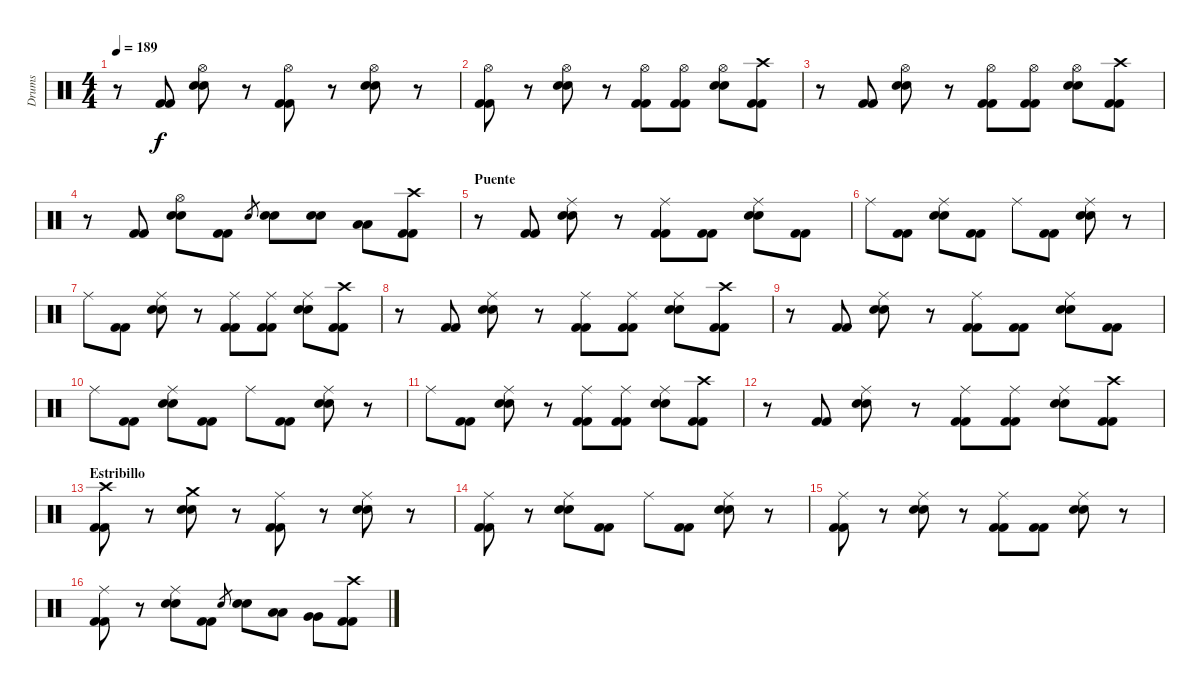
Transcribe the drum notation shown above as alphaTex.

\track ("Drums" "Drums") {instrument percussion}
\staff {score}
\articulation defaults
\ts (4 4)
\tempo 189
\clef neutral
\ks c
r.8{dy f} ("Kick (hit) 2" "Kick (hit) 2").8 ("Hi-Hat (open)" "Snare (hit) 2" "Snare (hit) 2").8 r.8 ("Hi-Hat (open)" "Kick (hit) 2" "Kick (hit) 2").8 r.8 ("Hi-Hat (open)" "Snare (hit) 2" "Snare (hit) 2").8 r.8 |
("Hi-Hat (open)" "Kick (hit) 2" "Kick (hit) 2").8 r.8 ("Hi-Hat (open)" "Snare (hit) 2" "Snare (hit) 2").8 r.8 ("Hi-Hat (open)" "Kick (hit) 2" "Kick (hit) 2").8 ("Hi-Hat (open)" "Kick (hit) 2" "Kick (hit) 2").8 ("Hi-Hat (open)" "Snare (hit) 2" "Snare (hit) 2").8 ("Crash high (hit)" "Kick (hit) 2" "Kick (hit) 2").8 |
r.8 ("Kick (hit) 2" "Kick (hit) 2").8 ("Hi-Hat (open)" "Snare (hit) 2" "Snare (hit) 2").8 r.8 ("Hi-Hat (open)" "Kick (hit) 2" "Kick (hit) 2").8 ("Hi-Hat (open)" "Kick (hit) 2" "Kick (hit) 2").8 ("Hi-Hat (open)" "Snare (hit) 2" "Snare (hit) 2").8 ("Crash high (hit)" "Kick (hit) 2" "Kick (hit) 2").8 |
r.8 ("Kick (hit) 2" "Kick (hit) 2").8 ("Hi-Hat (open)" "Snare (hit) 2" "Snare (hit) 2").8 ("Kick (hit) 2" "Kick (hit) 2").8 "Snare (hit) 2".8{gr} ("Snare (hit) 2" "Snare (hit) 2").8 ("Snare (hit) 2" "Snare (hit) 2").8 ("Low Tom (hit)" "Low Tom (hit)").8 ("Crash high (hit)" "Kick (hit) 2" "Kick (hit) 2").8 |
\section ("" "Puente")
r.8 ("Kick (hit) 2" "Kick (hit) 2").8 ("Ride (middle)" "Snare (hit) 2" "Snare (hit) 2").8 r.8 ("Ride (middle)" "Kick (hit) 2" "Kick (hit) 2").8 ("Kick (hit) 2" "Kick (hit) 2").8 ("Ride (middle)" "Snare (hit) 2" "Snare (hit) 2").8 ("Kick (hit) 2" "Kick (hit) 2").8 |
"Ride (middle)".8 ("Kick (hit) 2" "Kick (hit) 2").8 ("Ride (middle)" "Snare (hit) 2" "Snare (hit) 2").8 ("Kick (hit) 2" "Kick (hit) 2").8 "Ride (middle)".8 ("Kick (hit) 2" "Kick (hit) 2").8 ("Ride (middle)" "Snare (hit) 2" "Snare (hit) 2").8 r.8 |
"Ride (middle)".8 ("Kick (hit) 2" "Kick (hit) 2").8 ("Ride (middle)" "Snare (hit) 2" "Snare (hit) 2").8 r.8 ("Ride (middle)" "Kick (hit) 2" "Kick (hit) 2").8 ("Ride (middle)" "Kick (hit) 2" "Kick (hit) 2").8 ("Ride (middle)" "Snare (hit) 2" "Snare (hit) 2").8 ("Crash high (hit)" "Kick (hit) 2" "Kick (hit) 2").8 |
r.8 ("Kick (hit) 2" "Kick (hit) 2").8 ("Ride (middle)" "Snare (hit) 2" "Snare (hit) 2").8 r.8 ("Ride (middle)" "Kick (hit) 2" "Kick (hit) 2").8 ("Ride (middle)" "Kick (hit) 2" "Kick (hit) 2").8 ("Ride (middle)" "Snare (hit) 2" "Snare (hit) 2").8 ("Crash high (hit)" "Kick (hit) 2" "Kick (hit) 2").8 |
r.8 ("Kick (hit) 2" "Kick (hit) 2").8 ("Ride (middle)" "Snare (hit) 2" "Snare (hit) 2").8 r.8 ("Ride (middle)" "Kick (hit) 2" "Kick (hit) 2").8 ("Kick (hit) 2" "Kick (hit) 2").8 ("Ride (middle)" "Snare (hit) 2" "Snare (hit) 2").8 ("Kick (hit) 2" "Kick (hit) 2").8 |
"Ride (middle)".8 ("Kick (hit) 2" "Kick (hit) 2").8 ("Ride (middle)" "Snare (hit) 2" "Snare (hit) 2").8 ("Kick (hit) 2" "Kick (hit) 2").8 "Ride (middle)".8 ("Kick (hit) 2" "Kick (hit) 2").8 ("Ride (middle)" "Snare (hit) 2" "Snare (hit) 2").8 r.8 |
"Ride (middle)".8 ("Kick (hit) 2" "Kick (hit) 2").8 ("Ride (middle)" "Snare (hit) 2" "Snare (hit) 2").8 r.8 ("Ride (middle)" "Kick (hit) 2" "Kick (hit) 2").8 ("Ride (middle)" "Kick (hit) 2" "Kick (hit) 2").8 ("Ride (middle)" "Snare (hit) 2" "Snare (hit) 2").8 ("Crash high (hit)" "Kick (hit) 2" "Kick (hit) 2").8 |
r.8 ("Kick (hit) 2" "Kick (hit) 2").8 ("Ride (middle)" "Snare (hit) 2" "Snare (hit) 2").8 r.8 ("Ride (middle)" "Kick (hit) 2" "Kick (hit) 2").8 ("Ride (middle)" "Kick (hit) 2" "Kick (hit) 2").8 ("Ride (middle)" "Snare (hit) 2" "Snare (hit) 2").8 ("Crash high (hit)" "Kick (hit) 2" "Kick (hit) 2").8 |
\section ("" "Estribillo")
("Crash high (hit)" "Kick (hit) 2" "Kick (hit) 2").8 r.8 ("Crash medium (hit)" "Snare (hit) 2" "Snare (hit) 2").8 r.8 ("Ride (middle)" "Kick (hit) 2" "Kick (hit) 2").8 r.8 ("Ride (middle)" "Snare (hit) 2" "Snare (hit) 2").8 r.8 |
("Ride (middle)" "Kick (hit) 2" "Kick (hit) 2").8 r.8 ("Ride (middle)" "Snare (hit) 2" "Snare (hit) 2").8 ("Kick (hit) 2" "Kick (hit) 2").8 "Ride (middle)".8 ("Kick (hit) 2" "Kick (hit) 2").8 ("Ride (middle)" "Snare (hit) 2" "Snare (hit) 2").8 r.8 |
("Ride (middle)" "Kick (hit) 2" "Kick (hit) 2").8 r.8 ("Ride (middle)" "Snare (hit) 2" "Snare (hit) 2").8 r.8 ("Ride (middle)" "Kick (hit) 2" "Kick (hit) 2").8 ("Kick (hit) 2" "Kick (hit) 2").8 ("Ride (middle)" "Snare (hit) 2" "Snare (hit) 2").8 r.8 |
("Ride (middle)" "Kick (hit) 2" "Kick (hit) 2").8 r.8 ("Ride (middle)" "Snare (hit) 2" "Snare (hit) 2").8 ("Kick (hit) 2" "Kick (hit) 2").8 "Snare (hit) 2".8{gr} ("Snare (hit) 2" "Snare (hit) 2").8 ("Low Tom (hit)" "Low Tom (hit)").8 ("Very Low Tom (hit)" "Very Low Tom (hit)").8 ("Crash high (hit)" "Kick (hit) 2" "Kick (hit) 2").8
